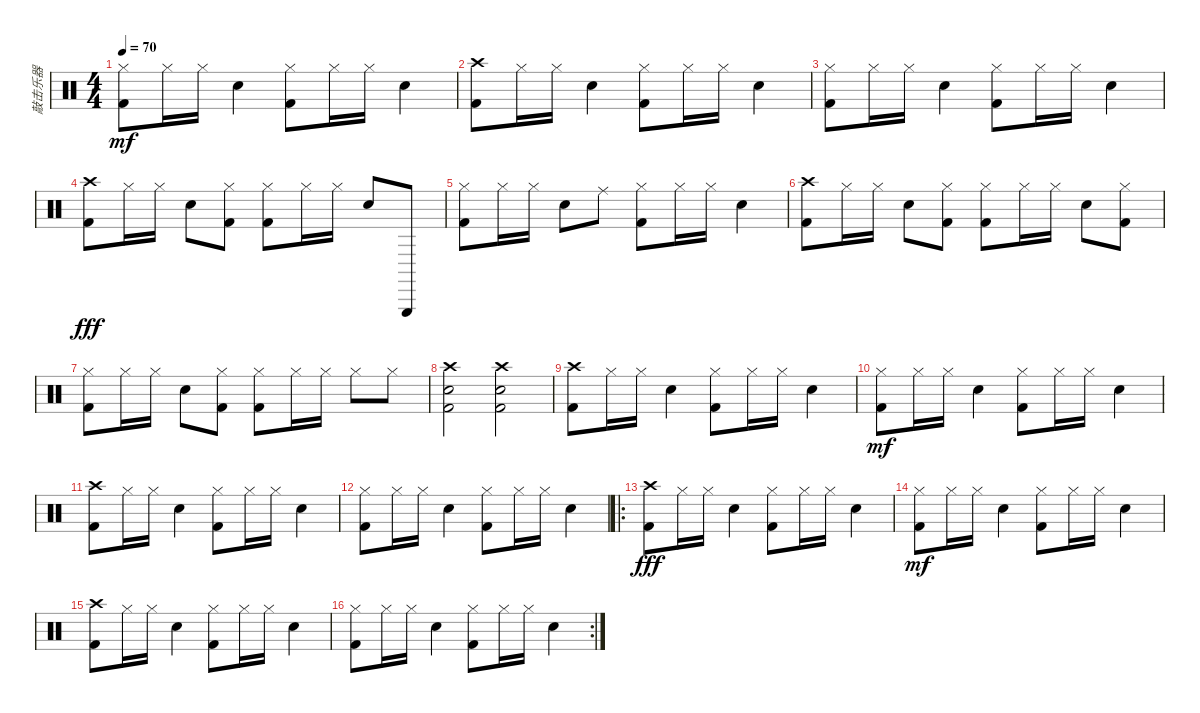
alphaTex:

\track ("敲击乐器" "敲击乐器") {instrument percussion}
\staff {score}
\articulation defaults
\ts (4 4)
\tempo 70
\clef neutral
\ks c
("Hi-Hat (closed)" "Kick (hit) 2").8{dy mf} "Hi-Hat (closed)".16 "Hi-Hat (closed)".16 "Electric Snare (hit)".4 ("Hi-Hat (closed)" "Kick (hit) 2").8 "Hi-Hat (closed)".16 "Hi-Hat (closed)".16 "Electric Snare (hit)".4 |
("Crash high (hit)" "Kick (hit) 2").8 "Hi-Hat (closed)".16 "Hi-Hat (closed)".16 "Electric Snare (hit)".4 ("Hi-Hat (closed)" "Kick (hit) 2").8 "Hi-Hat (closed)".16 "Hi-Hat (closed)".16 "Electric Snare (hit)".4 |
("Hi-Hat (closed)" "Kick (hit) 2").8 "Hi-Hat (closed)".16 "Hi-Hat (closed)".16 "Electric Snare (hit)".4 ("Hi-Hat (closed)" "Kick (hit) 2").8 "Hi-Hat (closed)".16 "Hi-Hat (closed)".16 "Electric Snare (hit)".4 |
("Crash high (hit)" "Kick (hit) 2").8{dy fff} "Hi-Hat (closed)".16 "Hi-Hat (closed)".16 "Electric Snare (hit)".8 ("Hi-Hat (closed)" "Kick (hit) 2").8 ("Hi-Hat (closed)" "Kick (hit) 2").8 "Hi-Hat (closed)".16 "Hi-Hat (closed)".16 "Electric Snare (hit)".8 "Triangle (hit)".8 |
("Hi-Hat (closed)" "Kick (hit) 2").8 "Hi-Hat (closed)".16 "Hi-Hat (closed)".16 "Electric Snare (hit)".8 "Ride (middle)".8 ("Hi-Hat (closed)" "Kick (hit) 2").8 "Hi-Hat (closed)".16 "Hi-Hat (closed)".16 "Electric Snare (hit)".4 |
("Crash high (hit)" "Kick (hit) 2").8 "Hi-Hat (closed)".16 "Hi-Hat (closed)".16 "Electric Snare (hit)".8 ("Hi-Hat (closed)" "Kick (hit) 2").8 ("Hi-Hat (closed)" "Kick (hit) 2").8 "Hi-Hat (closed)".16 "Hi-Hat (closed)".16 "Electric Snare (hit)".8 ("Hi-Hat (closed)" "Kick (hit) 2").8 |
("Hi-Hat (closed)" "Kick (hit) 2").8 "Hi-Hat (closed)".16 "Hi-Hat (closed)".16 "Electric Snare (hit)".8 ("Hi-Hat (closed)" "Kick (hit) 2").8 ("Hi-Hat (closed)" "Kick (hit) 2").8 "Hi-Hat (closed)".16 "Hi-Hat (closed)".16 "Hi-Hat (closed)".8 "Hi-Hat (closed)".8 |
("Crash high (hit)" "Electric Snare (hit)" "Kick (hit) 2").2 ("Crash high (hit)" "Electric Snare (hit)" "Kick (hit) 2").2 |
("Crash high (hit)" "Kick (hit) 2").8 "Hi-Hat (closed)".16 "Hi-Hat (closed)".16 "Electric Snare (hit)".4 ("Hi-Hat (closed)" "Kick (hit) 2").8 "Hi-Hat (closed)".16 "Hi-Hat (closed)".16 "Electric Snare (hit)".4 |
("Hi-Hat (closed)" "Kick (hit) 2").8{dy mf} "Hi-Hat (closed)".16 "Hi-Hat (closed)".16 "Electric Snare (hit)".4 ("Hi-Hat (closed)" "Kick (hit) 2").8 "Hi-Hat (closed)".16 "Hi-Hat (closed)".16 "Electric Snare (hit)".4 |
("Crash high (hit)" "Kick (hit) 2").8 "Hi-Hat (closed)".16 "Hi-Hat (closed)".16 "Electric Snare (hit)".4 ("Hi-Hat (closed)" "Kick (hit) 2").8 "Hi-Hat (closed)".16 "Hi-Hat (closed)".16 "Electric Snare (hit)".4 |
("Hi-Hat (closed)" "Kick (hit) 2").8 "Hi-Hat (closed)".16 "Hi-Hat (closed)".16 "Electric Snare (hit)".4 ("Hi-Hat (closed)" "Kick (hit) 2").8 "Hi-Hat (closed)".16 "Hi-Hat (closed)".16 "Electric Snare (hit)".4 |
\ro
("Crash high (hit)" "Kick (hit) 2").8{dy fff} "Hi-Hat (closed)".16 "Hi-Hat (closed)".16 "Electric Snare (hit)".4 ("Hi-Hat (closed)" "Kick (hit) 2").8 "Hi-Hat (closed)".16 "Hi-Hat (closed)".16 "Electric Snare (hit)".4 |
("Hi-Hat (closed)" "Kick (hit) 2").8{dy mf} "Hi-Hat (closed)".16 "Hi-Hat (closed)".16 "Electric Snare (hit)".4 ("Hi-Hat (closed)" "Kick (hit) 2").8 "Hi-Hat (closed)".16 "Hi-Hat (closed)".16 "Electric Snare (hit)".4 |
("Crash high (hit)" "Kick (hit) 2").8 "Hi-Hat (closed)".16 "Hi-Hat (closed)".16 "Electric Snare (hit)".4 ("Hi-Hat (closed)" "Kick (hit) 2").8 "Hi-Hat (closed)".16 "Hi-Hat (closed)".16 "Electric Snare (hit)".4 |
\rc 2
("Hi-Hat (closed)" "Kick (hit) 2").8 "Hi-Hat (closed)".16 "Hi-Hat (closed)".16 "Electric Snare (hit)".4 ("Hi-Hat (closed)" "Kick (hit) 2").8 "Hi-Hat (closed)".16 "Hi-Hat (closed)".16 "Electric Snare (hit)".4
